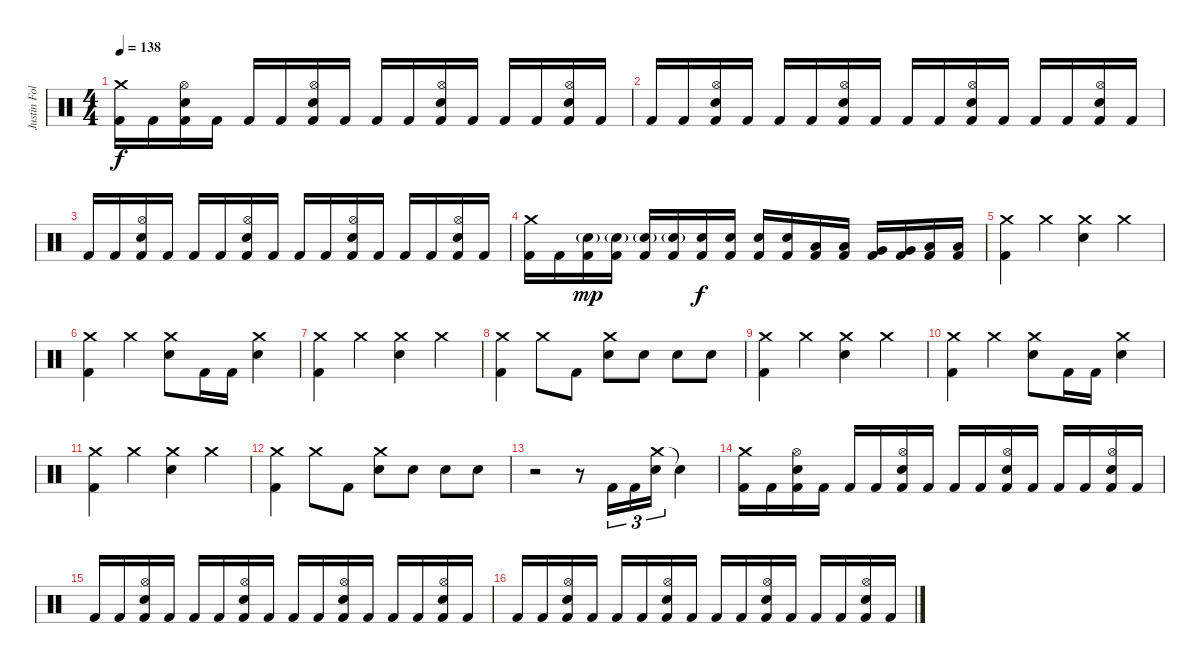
\track ("Justin Foley" "Justin Fol") {instrument percussion}
\staff {score}
\articulation defaults
\ts (4 4)
\tempo 138
\clef neutral
\ks c
("Crash medium (hit)" "Kick (hit) 2").16{dy f} "Kick (hit) 2".16 ("Hi-Hat (open)" "Electric Snare (hit)" "Kick (hit) 2").16 "Kick (hit) 2".16 "Kick (hit) 2".16 "Kick (hit) 2".16 ("Hi-Hat (open)" "Electric Snare (hit)" "Kick (hit) 2").16 "Kick (hit) 2".16 "Kick (hit) 2".16 "Kick (hit) 2".16 ("Hi-Hat (open)" "Electric Snare (hit)" "Kick (hit) 2").16 "Kick (hit) 2".16 "Kick (hit) 2".16 "Kick (hit) 2".16 ("Hi-Hat (open)" "Electric Snare (hit)" "Kick (hit) 2").16 "Kick (hit) 2".16 |
"Kick (hit) 2".16 "Kick (hit) 2".16 ("Hi-Hat (open)" "Electric Snare (hit)" "Kick (hit) 2").16 "Kick (hit) 2".16 "Kick (hit) 2".16 "Kick (hit) 2".16 ("Hi-Hat (open)" "Electric Snare (hit)" "Kick (hit) 2").16 "Kick (hit) 2".16 "Kick (hit) 2".16 "Kick (hit) 2".16 ("Hi-Hat (open)" "Electric Snare (hit)" "Kick (hit) 2").16 "Kick (hit) 2".16 "Kick (hit) 2".16 "Kick (hit) 2".16 ("Hi-Hat (open)" "Electric Snare (hit)" "Kick (hit) 2").16 "Kick (hit) 2".16 |
"Kick (hit) 2".16 "Kick (hit) 2".16 ("Hi-Hat (open)" "Electric Snare (hit)" "Kick (hit) 2").16 "Kick (hit) 2".16 "Kick (hit) 2".16 "Kick (hit) 2".16 ("Hi-Hat (open)" "Electric Snare (hit)" "Kick (hit) 2").16 "Kick (hit) 2".16 "Kick (hit) 2".16 "Kick (hit) 2".16 ("Hi-Hat (open)" "Electric Snare (hit)" "Kick (hit) 2").16 "Kick (hit) 2".16 "Kick (hit) 2".16 "Kick (hit) 2".16 ("Hi-Hat (open)" "Electric Snare (hit)" "Kick (hit) 2").16 "Kick (hit) 2".16 |
("Crash medium (hit)" "Kick (hit) 2").16 "Kick (hit) 2".16 ("Electric Snare (hit)"{g} "Kick (hit) 2").16{dy mp} ("Electric Snare (hit)"{g} "Kick (hit) 2").16 ("Electric Snare (hit)"{g} "Kick (hit) 2").16 ("Electric Snare (hit)"{g} "Kick (hit) 2").16 ("Electric Snare (hit)" "Kick (hit) 2").16{dy f} ("Electric Snare (hit)" "Kick (hit) 2").16 ("Electric Snare (hit)" "Kick (hit) 2").16 ("Electric Snare (hit)" "Kick (hit) 2").16 ("Low Tom (hit)" "Kick (hit) 2").16 ("Low Tom (hit)" "Kick (hit) 2").16 ("Very Low Tom (hit)" "Kick (hit) 2").16 ("Very Low Tom (hit)" "Kick (hit) 2").16 ("Low Floor Tom (hit)" "Kick (hit) 2").16 ("Low Floor Tom (hit)" "Kick (hit) 2").16 |
("Crash medium (hit)" "Kick (hit) 2").4 "Crash medium (hit)".4 ("Crash medium (hit)" "Electric Snare (hit)").4 "Crash medium (hit)".4 |
("Crash medium (hit)" "Kick (hit) 2").4 "Crash medium (hit)".4 ("Crash medium (hit)" "Electric Snare (hit)").8 "Kick (hit) 2".16 "Kick (hit) 2".16 ("Crash medium (hit)" "Electric Snare (hit)").4 |
("Crash medium (hit)" "Kick (hit) 2").4 "Crash medium (hit)".4 ("Crash medium (hit)" "Electric Snare (hit)").4 "Crash medium (hit)".4 |
("Crash medium (hit)" "Kick (hit) 2").4 "Crash medium (hit)".8 "Kick (hit) 2".8 ("Crash medium (hit)" "Electric Snare (hit)").8 "Electric Snare (hit)".8 "Electric Snare (hit)".8 "Electric Snare (hit)".8 |
("Crash medium (hit)" "Kick (hit) 2").4 "Crash medium (hit)".4 ("Crash medium (hit)" "Electric Snare (hit)").4 "Crash medium (hit)".4 |
("Crash medium (hit)" "Kick (hit) 2").4 "Crash medium (hit)".4 ("Crash medium (hit)" "Electric Snare (hit)").8 "Kick (hit) 2".16 "Kick (hit) 2".16 ("Crash medium (hit)" "Electric Snare (hit)").4 |
("Crash medium (hit)" "Kick (hit) 2").4 "Crash medium (hit)".4 ("Crash medium (hit)" "Electric Snare (hit)").4 "Crash medium (hit)".4 |
("Crash medium (hit)" "Kick (hit) 2").4 "Crash medium (hit)".8 "Kick (hit) 2".8 ("Crash medium (hit)" "Electric Snare (hit)").8 "Electric Snare (hit)".8 "Electric Snare (hit)".8 "Electric Snare (hit)".8 |
r.2 r.8 "Kick (hit) 2".16{tu (3 2)} "Kick (hit) 2".16{tu (3 2)} ("Crash medium (hit)" "Electric Snare (hit)").16{tu (3 2)} "Snare (hit)"{t}.4 |
("Crash medium (hit)" "Kick (hit) 2").16 "Kick (hit) 2".16 ("Hi-Hat (open)" "Electric Snare (hit)" "Kick (hit) 2").16 "Kick (hit) 2".16 "Kick (hit) 2".16 "Kick (hit) 2".16 ("Hi-Hat (open)" "Electric Snare (hit)" "Kick (hit) 2").16 "Kick (hit) 2".16 "Kick (hit) 2".16 "Kick (hit) 2".16 ("Hi-Hat (open)" "Electric Snare (hit)" "Kick (hit) 2").16 "Kick (hit) 2".16 "Kick (hit) 2".16 "Kick (hit) 2".16 ("Hi-Hat (open)" "Electric Snare (hit)" "Kick (hit) 2").16 "Kick (hit) 2".16 |
"Kick (hit) 2".16 "Kick (hit) 2".16 ("Hi-Hat (open)" "Electric Snare (hit)" "Kick (hit) 2").16 "Kick (hit) 2".16 "Kick (hit) 2".16 "Kick (hit) 2".16 ("Hi-Hat (open)" "Electric Snare (hit)" "Kick (hit) 2").16 "Kick (hit) 2".16 "Kick (hit) 2".16 "Kick (hit) 2".16 ("Hi-Hat (open)" "Electric Snare (hit)" "Kick (hit) 2").16 "Kick (hit) 2".16 "Kick (hit) 2".16 "Kick (hit) 2".16 ("Hi-Hat (open)" "Electric Snare (hit)" "Kick (hit) 2").16 "Kick (hit) 2".16 |
"Kick (hit) 2".16 "Kick (hit) 2".16 ("Hi-Hat (open)" "Electric Snare (hit)" "Kick (hit) 2").16 "Kick (hit) 2".16 "Kick (hit) 2".16 "Kick (hit) 2".16 ("Hi-Hat (open)" "Electric Snare (hit)" "Kick (hit) 2").16 "Kick (hit) 2".16 "Kick (hit) 2".16 "Kick (hit) 2".16 ("Hi-Hat (open)" "Electric Snare (hit)" "Kick (hit) 2").16 "Kick (hit) 2".16 "Kick (hit) 2".16 "Kick (hit) 2".16 ("Hi-Hat (open)" "Electric Snare (hit)" "Kick (hit) 2").16 "Kick (hit) 2".16
